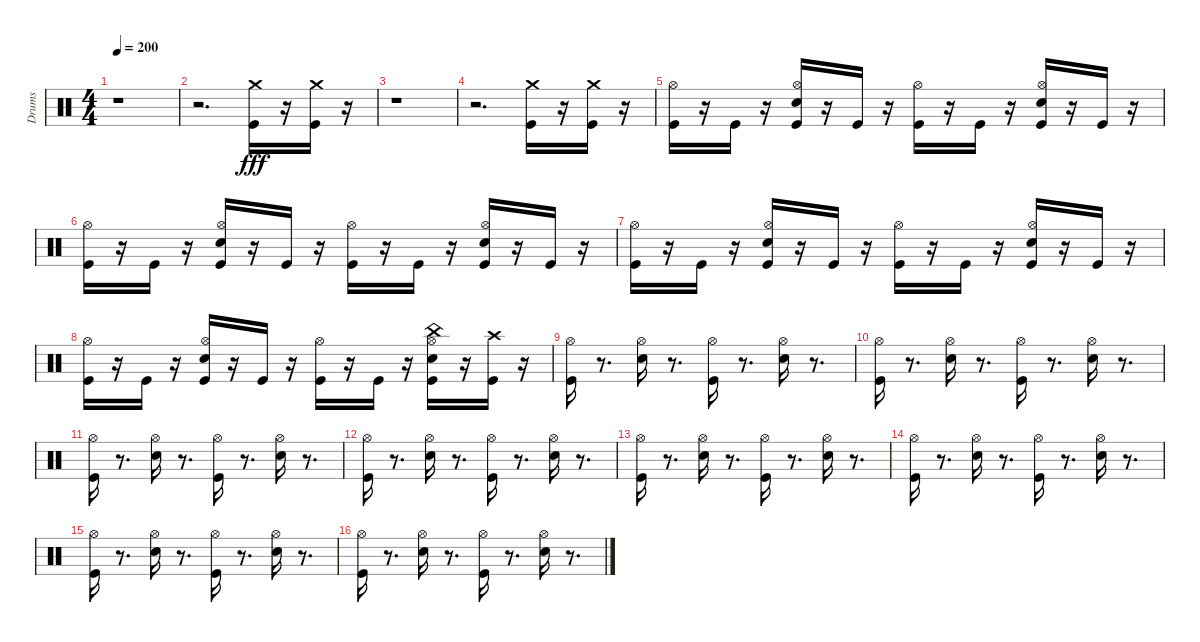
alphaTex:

\track ("Drums" "Drums") {instrument percussion}
\staff {score}
\articulation defaults
\ts (4 4)
\tempo 200
\clef neutral
\ks c
r.1{dy fff} |
r.2{d} ("Crash medium (hit)" "Kick (hit)").16 r.16 ("Kick (hit)" "Crash medium (hit)").16 r.16 |
r.1 |
r.2{d} ("Crash medium (hit)" "Kick (hit)").16 r.16 ("Crash medium (hit)" "Kick (hit)").16 r.16 |
("Hi-Hat (open)" "Kick (hit)").16 r.16 "Kick (hit)".16 r.16 ("Kick (hit)" "Hi-Hat (open)" "Snare (hit) 2").16 r.16 "Kick (hit)".16 r.16 ("Hi-Hat (open)" "Kick (hit)").16 r.16 "Kick (hit)".16 r.16 ("Hi-Hat (open)" "Snare (hit) 2" "Kick (hit)").16 r.16 "Kick (hit)".16 r.16 |
("Hi-Hat (open)" "Kick (hit)").16 r.16 "Kick (hit)".16 r.16 ("Hi-Hat (open)" "Snare (hit) 2" "Kick (hit)").16 r.16 "Kick (hit)".16 r.16 ("Hi-Hat (open)" "Kick (hit)").16 r.16 "Kick (hit)".16 r.16 ("Hi-Hat (open)" "Kick (hit)" "Snare (hit) 2").16 r.16 "Kick (hit)".16 r.16 |
("Hi-Hat (open)" "Kick (hit)").16 r.16 "Kick (hit)".16 r.16 ("Kick (hit)" "Snare (hit) 2" "Hi-Hat (open)").16 r.16 "Kick (hit)".16 r.16 ("Hi-Hat (open)" "Kick (hit)").16 r.16 "Kick (hit)".16 r.16 ("Snare (hit) 2" "Hi-Hat (open)" "Kick (hit)").16 r.16 "Kick (hit)".16 r.16 |
("Hi-Hat (open)" "Kick (hit)").16 r.16 "Kick (hit)".16 r.16 ("Snare (hit) 2" "Hi-Hat (open)" "Kick (hit)").16 r.16 "Kick (hit)".16 r.16 ("Hi-Hat (open)" "Kick (hit)").16 r.16 "Kick (hit)".16 r.16 ("Hi-Hat (open)" "Kick (hit)" "China (hit)" "Snare (hit) 2").16 r.16 ("Kick (hit)" "Crash high (hit)").16 r.16 |
("Hi-Hat (open)" "Kick (hit)").16 r.8{d} ("Hi-Hat (open)" "Snare (hit) 2").16 r.8{d} ("Hi-Hat (open)" "Kick (hit)").16 r.8{d} ("Hi-Hat (open)" "Snare (hit) 2").16 r.8{d} |
("Hi-Hat (open)" "Kick (hit)").16 r.8{d} ("Snare (hit) 2" "Hi-Hat (open)").16 r.8{d} ("Hi-Hat (open)" "Kick (hit)").16 r.8{d} ("Snare (hit) 2" "Hi-Hat (open)").16 r.8{d} |
("Hi-Hat (open)" "Kick (hit)").16 r.8{d} ("Hi-Hat (open)" "Snare (hit) 2").16 r.8{d} ("Kick (hit)" "Hi-Hat (open)").16 r.8{d} ("Hi-Hat (open)" "Snare (hit) 2").16 r.8{d} |
("Kick (hit)" "Hi-Hat (open)").16 r.8{d} ("Hi-Hat (open)" "Snare (hit) 2").16 r.8{d} ("Hi-Hat (open)" "Kick (hit)").16 r.8{d} ("Hi-Hat (open)" "Snare (hit) 2").16 r.8{d} |
("Hi-Hat (open)" "Kick (hit)").16 r.8{d} ("Snare (hit) 2" "Hi-Hat (open)").16 r.8{d} ("Hi-Hat (open)" "Kick (hit)").16 r.8{d} ("Hi-Hat (open)" "Snare (hit) 2").16 r.8{d} |
("Hi-Hat (open)" "Kick (hit)").16 r.8{d} ("Snare (hit) 2" "Hi-Hat (open)").16 r.8{d} ("Kick (hit)" "Hi-Hat (open)").16 r.8{d} ("Snare (hit) 2" "Hi-Hat (open)").16 r.8{d} |
("Hi-Hat (open)" "Kick (hit)").16 r.8{d} ("Hi-Hat (open)" "Snare (hit) 2").16 r.8{d} ("Kick (hit)" "Hi-Hat (open)").16 r.8{d} ("Hi-Hat (open)" "Snare (hit) 2").16 r.8{d} |
("Kick (hit)" "Hi-Hat (open)").16 r.8{d} ("Snare (hit) 2" "Hi-Hat (open)").16 r.8{d} ("Hi-Hat (open)" "Kick (hit)").16 r.8{d} ("Hi-Hat (open)" "Snare (hit) 2").16 r.8{d}
